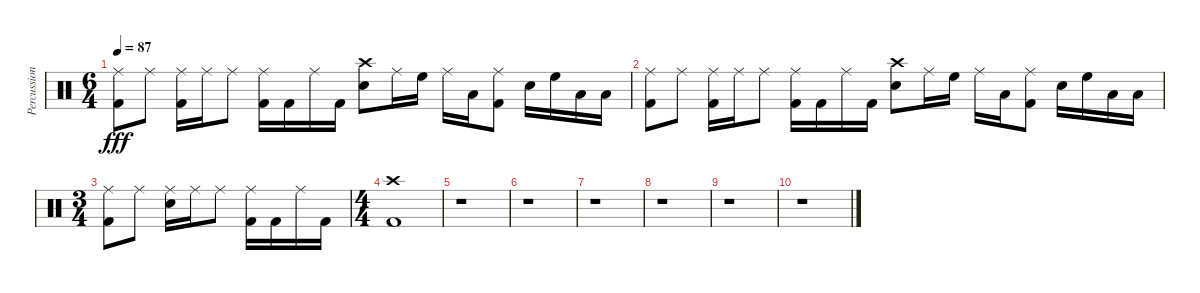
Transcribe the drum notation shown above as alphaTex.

\track ("Percussions" "Percussion") {instrument percussion}
\staff {score}
\articulation defaults
\ts (6 4)
\tempo 87
\clef neutral
\ks c
("Ride (middle)" "Kick (hit) 2").8{dy fff} "Ride (middle)".8 ("Ride (middle)" "Kick (hit) 2").16 "Ride (middle)".16 "Ride (middle)".8 ("Ride (middle)" "Kick (hit) 2").16 "Kick (hit) 2".16 "Ride (middle)".16 "Kick (hit) 2".16 ("Electric Snare (hit)" "Crash high (hit)").8 "Ride (middle)".16 "High Floor Tom (hit)".16 "Ride (middle)".16 "Low Tom (hit)".16 ("Ride (middle)" "Kick (hit) 2").8 "Electric Snare (hit)".16 "High Floor Tom (hit)".16 "Low Tom (hit)".16 "Low Tom (hit)".16 |
("Ride (middle)" "Kick (hit) 2").8 "Ride (middle)".8 ("Ride (middle)" "Kick (hit) 2").16 "Ride (middle)".16 "Ride (middle)".8 ("Ride (middle)" "Kick (hit) 2").16 "Kick (hit) 2".16 "Ride (middle)".16 "Kick (hit) 2".16 ("Electric Snare (hit)" "Crash high (hit)").8 "Ride (middle)".16 "High Floor Tom (hit)".16 "Ride (middle)".16 "Low Tom (hit)".16 ("Ride (middle)" "Kick (hit) 2").8 "Electric Snare (hit)".16 "High Floor Tom (hit)".16 "Low Tom (hit)".16 "Low Tom (hit)".16 |
\ts (3 4)
("Ride (middle)" "Kick (hit) 2").8 "Ride (middle)".8 ("Electric Snare (hit)" "Ride (middle)").16 "Ride (middle)".16 "Ride (middle)".8 ("Ride (middle)" "Kick (hit) 2").16 "Kick (hit) 2".16 "Ride (middle)".16 "Kick (hit) 2".16 |
\ts (4 4)
("Crash high (hit)" "Kick (hit) 2").1 |
r.1 |
r.1 |
r.1 |
r.1 |
r.1 |
r.1
